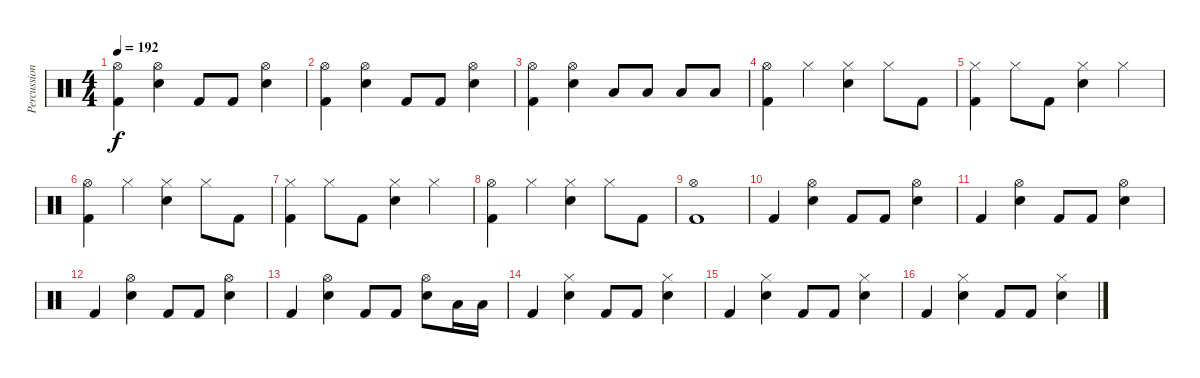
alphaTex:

\track ("Percussions" "Percussion") {instrument percussion}
\staff {score}
\articulation defaults
\ts (4 4)
\tempo 192
\clef neutral
\ks c
("Kick (hit) 2" "Hi-Hat (open)").4{dy f} ("Electric Snare (hit)" "Hi-Hat (open)").4 "Kick (hit) 2".8 "Kick (hit) 2".8 ("Electric Snare (hit)" "Hi-Hat (open)").4 |
("Kick (hit) 2" "Hi-Hat (open)").4 ("Electric Snare (hit)" "Hi-Hat (open)").4 "Kick (hit) 2".8 "Kick (hit) 2".8 ("Electric Snare (hit)" "Hi-Hat (open)").4 |
("Kick (hit) 2" "Hi-Hat (open)").4 ("Electric Snare (hit)" "Hi-Hat (open)").4 "Low Tom (hit)".8 "Low Tom (hit)".8 "Low Tom (hit)".8 "Low Tom (hit)".8 |
("Kick (hit) 2" "Hi-Hat (open)").4 "Hi-Hat (closed)".4 ("Electric Snare (hit)" "Hi-Hat (closed)").4 "Hi-Hat (closed)".8 "Kick (hit) 2".8 |
("Kick (hit) 2" "Hi-Hat (closed)").4 "Hi-Hat (closed)".8 "Kick (hit) 2".8 ("Electric Snare (hit)" "Hi-Hat (closed)").4 "Hi-Hat (closed)".4 |
("Kick (hit) 2" "Hi-Hat (open)").4 "Hi-Hat (closed)".4 ("Electric Snare (hit)" "Hi-Hat (closed)").4 "Hi-Hat (closed)".8 "Kick (hit) 2".8 |
("Kick (hit) 2" "Hi-Hat (closed)").4 "Hi-Hat (closed)".8 "Kick (hit) 2".8 ("Electric Snare (hit)" "Hi-Hat (closed)").4 "Hi-Hat (closed)".4 |
("Kick (hit) 2" "Hi-Hat (open)").4 "Hi-Hat (closed)".4 ("Electric Snare (hit)" "Hi-Hat (closed)").4 "Hi-Hat (closed)".8 "Kick (hit) 2".8 |
("Kick (hit) 2" "Hi-Hat (open)").1 |
"Kick (hit) 2".4 ("Electric Snare (hit)" "Hi-Hat (open)").4 "Kick (hit) 2".8 "Kick (hit) 2".8 ("Electric Snare (hit)" "Hi-Hat (open)").4 |
"Kick (hit) 2".4 ("Electric Snare (hit)" "Hi-Hat (open)").4 "Kick (hit) 2".8 "Kick (hit) 2".8 ("Electric Snare (hit)" "Hi-Hat (open)").4 |
"Kick (hit) 2".4 ("Electric Snare (hit)" "Hi-Hat (open)").4 "Kick (hit) 2".8 "Kick (hit) 2".8 ("Electric Snare (hit)" "Hi-Hat (open)").4 |
"Kick (hit) 2".4 ("Electric Snare (hit)" "Hi-Hat (open)").4 "Kick (hit) 2".8 "Kick (hit) 2".8 ("Electric Snare (hit)" "Hi-Hat (open)").8 "Low Tom (hit)".16 "Low Tom (hit)".16 |
"Kick (hit) 2".4 ("Electric Snare (hit)" "Hi-Hat (closed)").4 "Kick (hit) 2".8 "Kick (hit) 2".8 ("Electric Snare (hit)" "Hi-Hat (closed)").4 |
"Kick (hit) 2".4 ("Electric Snare (hit)" "Hi-Hat (closed)").4 "Kick (hit) 2".8 "Kick (hit) 2".8 ("Electric Snare (hit)" "Hi-Hat (closed)").4 |
"Kick (hit) 2".4 ("Electric Snare (hit)" "Hi-Hat (closed)").4 "Kick (hit) 2".8 "Kick (hit) 2".8 ("Electric Snare (hit)" "Hi-Hat (closed)").4
